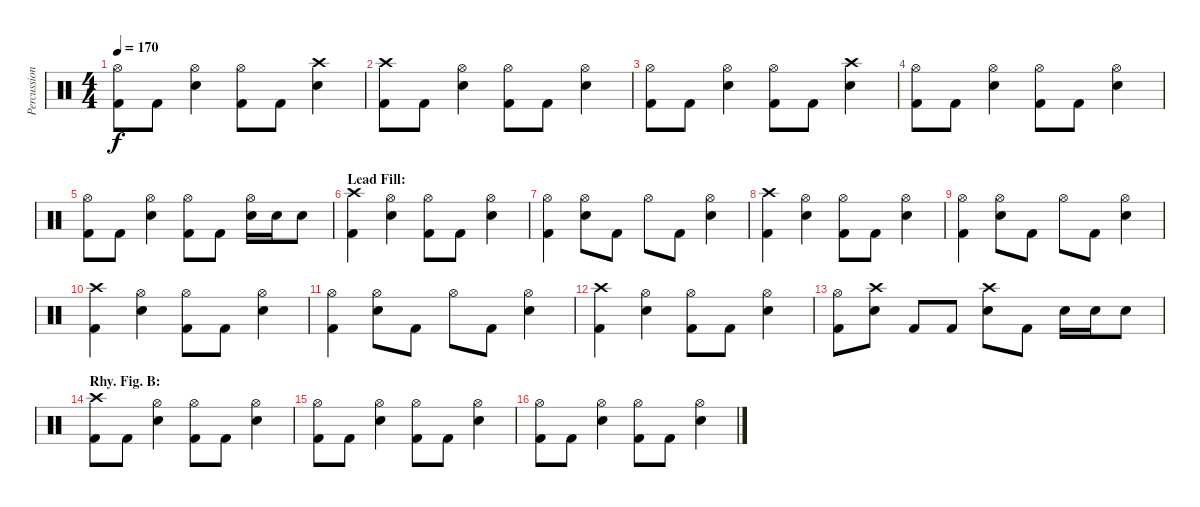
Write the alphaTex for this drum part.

\track ("Percussion" "Percussion") {instrument percussion}
\staff {score}
\articulation defaults
\ts (4 4)
\tempo 170
\clef neutral
\ks c
("Hi-Hat (open)" "Kick (hit) 2").8{dy f} "Kick (hit) 2".8 ("Hi-Hat (open)" "Snare (hit) 2").4 ("Hi-Hat (open)" "Kick (hit) 2").8 "Kick (hit) 2".8 ("Crash high (hit)" "Snare (hit) 2").4 |
("Crash high (hit)" "Kick (hit) 2").8 "Kick (hit) 2".8 ("Hi-Hat (open)" "Snare (hit) 2").4 ("Hi-Hat (open)" "Kick (hit) 2").8 "Kick (hit) 2".8 ("Hi-Hat (open)" "Snare (hit) 2").4 |
("Hi-Hat (open)" "Kick (hit) 2").8 "Kick (hit) 2".8 ("Hi-Hat (open)" "Snare (hit) 2").4 ("Hi-Hat (open)" "Kick (hit) 2").8 "Kick (hit) 2".8 ("Crash high (hit)" "Snare (hit) 2").4 |
("Hi-Hat (open)" "Kick (hit) 2").8 "Kick (hit) 2".8 ("Hi-Hat (open)" "Snare (hit) 2").4 ("Hi-Hat (open)" "Kick (hit) 2").8 "Kick (hit) 2".8 ("Hi-Hat (open)" "Snare (hit) 2").4 |
("Hi-Hat (open)" "Kick (hit) 2").8 "Kick (hit) 2".8 ("Hi-Hat (open)" "Snare (hit) 2").4 ("Hi-Hat (open)" "Kick (hit) 2").8 "Kick (hit) 2".8 ("Hi-Hat (open)" "Snare (hit) 2").16 "Snare (hit) 2".16 "Snare (hit) 2".8 |
\section ("" "Lead Fill:")
("Crash high (hit)" "Kick (hit) 2").4 ("Hi-Hat (open)" "Snare (hit) 2").4 ("Hi-Hat (open)" "Kick (hit) 2").8 "Kick (hit) 2".8 ("Hi-Hat (open)" "Snare (hit) 2").4 |
("Hi-Hat (open)" "Kick (hit) 2").4 ("Hi-Hat (open)" "Snare (hit) 2").8 "Kick (hit) 2".8 "Hi-Hat (open)".8 "Kick (hit) 2".8 ("Hi-Hat (open)" "Snare (hit) 2").4 |
("Crash high (hit)" "Kick (hit) 2").4 ("Hi-Hat (open)" "Snare (hit) 2").4 ("Hi-Hat (open)" "Kick (hit) 2").8 "Kick (hit) 2".8 ("Hi-Hat (open)" "Snare (hit) 2").4 |
("Hi-Hat (open)" "Kick (hit) 2").4 ("Hi-Hat (open)" "Snare (hit) 2").8 "Kick (hit) 2".8 "Hi-Hat (open)".8 "Kick (hit) 2".8 ("Hi-Hat (open)" "Snare (hit) 2").4 |
("Crash high (hit)" "Kick (hit) 2").4 ("Hi-Hat (open)" "Snare (hit) 2").4 ("Hi-Hat (open)" "Kick (hit) 2").8 "Kick (hit) 2".8 ("Hi-Hat (open)" "Snare (hit) 2").4 |
("Hi-Hat (open)" "Kick (hit) 2").4 ("Hi-Hat (open)" "Snare (hit) 2").8 "Kick (hit) 2".8 "Hi-Hat (open)".8 "Kick (hit) 2".8 ("Hi-Hat (open)" "Snare (hit) 2").4 |
("Crash high (hit)" "Kick (hit) 2").4 ("Hi-Hat (open)" "Snare (hit) 2").4 ("Hi-Hat (open)" "Kick (hit) 2").8 "Kick (hit) 2".8 ("Hi-Hat (open)" "Snare (hit) 2").4 |
("Hi-Hat (open)" "Kick (hit) 2").8 ("Crash high (hit)" "Snare (hit) 2").8 "Kick (hit) 2".8 "Kick (hit) 2".8 ("Crash high (hit)" "Snare (hit) 2").8 "Kick (hit) 2".8 "Snare (hit) 2".16 "Snare (hit) 2".16 "Snare (hit) 2".8 |
\section ("" "Rhy. Fig. B:")
("Crash high (hit)" "Kick (hit) 2").8 "Kick (hit) 2".8 ("Hi-Hat (open)" "Snare (hit) 2").4 ("Hi-Hat (open)" "Kick (hit) 2").8 "Kick (hit) 2".8 ("Hi-Hat (open)" "Snare (hit) 2").4 |
("Hi-Hat (open)" "Kick (hit) 2").8 "Kick (hit) 2".8 ("Hi-Hat (open)" "Snare (hit) 2").4 ("Hi-Hat (open)" "Kick (hit) 2").8 "Kick (hit) 2".8 ("Hi-Hat (open)" "Snare (hit) 2").4 |
("Hi-Hat (open)" "Kick (hit) 2").8 "Kick (hit) 2".8 ("Hi-Hat (open)" "Snare (hit) 2").4 ("Hi-Hat (open)" "Kick (hit) 2").8 "Kick (hit) 2".8 ("Hi-Hat (open)" "Snare (hit) 2").4
